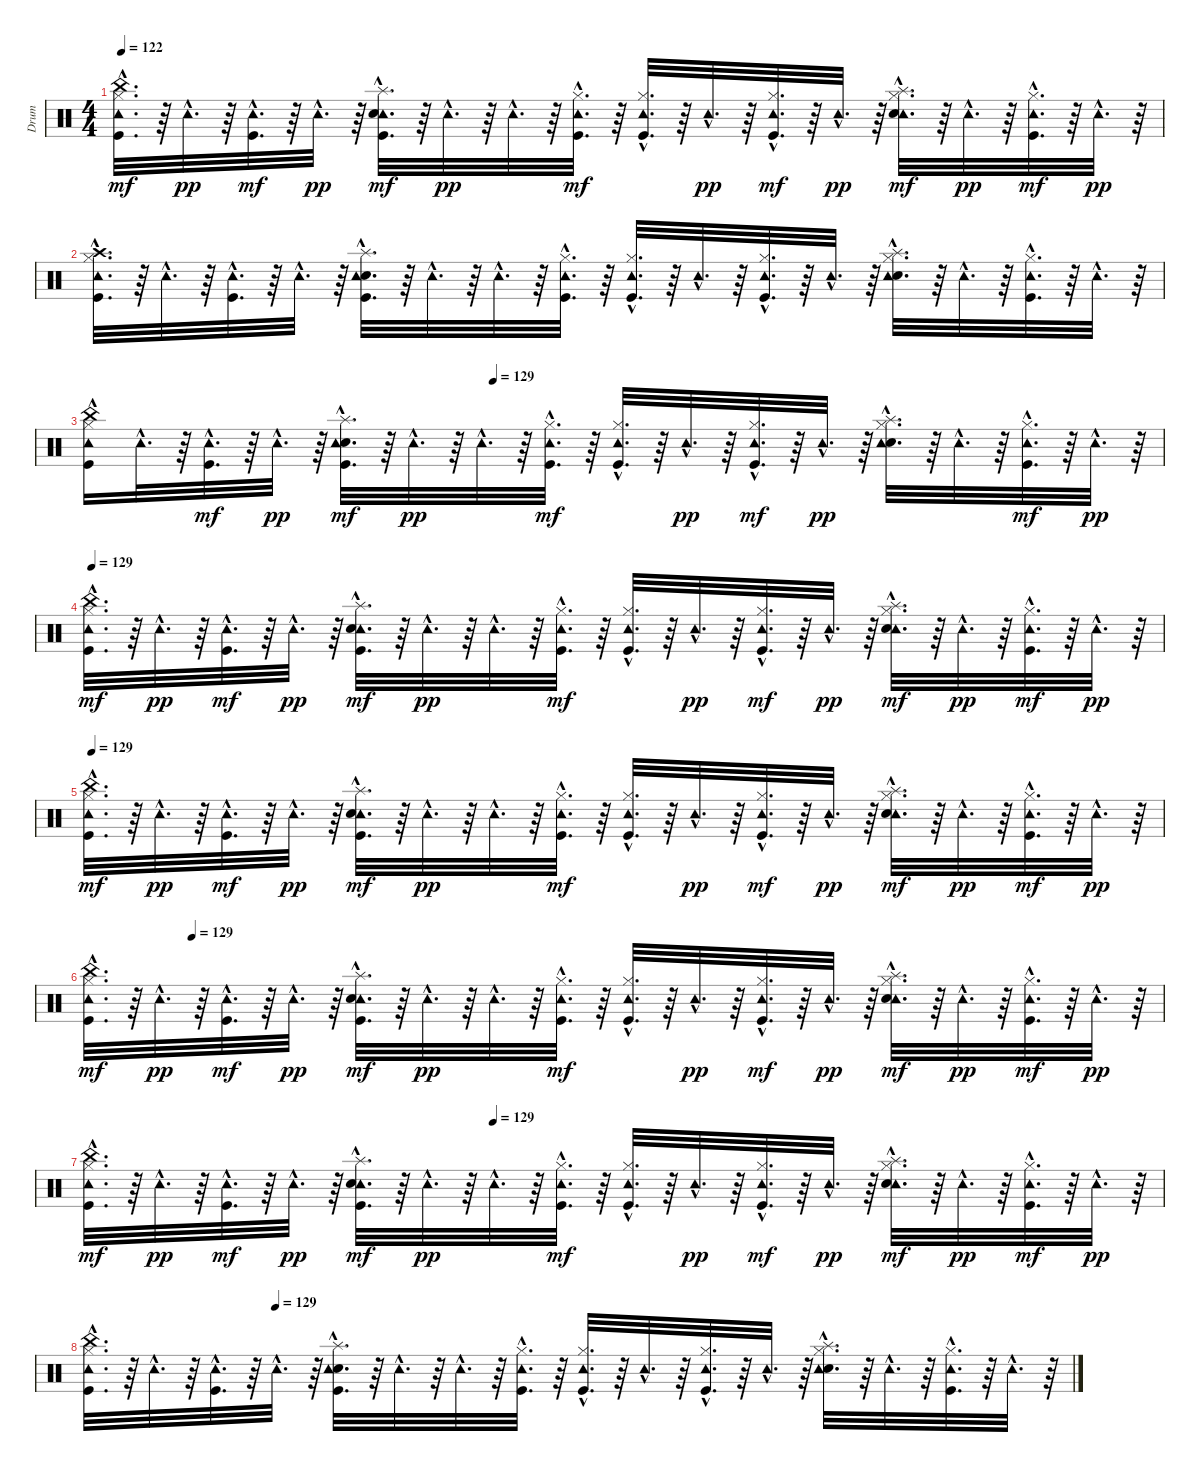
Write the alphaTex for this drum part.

\track ("Drum" "Drum") {instrument percussion}
\staff {score}
\articulation defaults
\ts (4 4)
\tempo 122
\clef neutral
\ks c
("China (hit)"{hac} "Tambourine (hit)"{hac} "Hi-Hat (closed)"{hac} "Kick (hit)"{hac}).32{d dy mf} r.64 "Tambourine (hit)"{hac}.32{d dy pp} r.64 ("Tambourine (hit)"{hac} "Kick (hit)"{hac}).32{d dy mf} r.64 "Tambourine (hit)"{hac}.32{d dy pp} r.64 ("Tambourine (hit)"{hac} "Kick (hit)"{hac} "Snare (hit) 2"{hac} "Splash (hit)"{hac}).32{d dy mf} r.64 "Tambourine (hit)"{hac}.32{d dy pp} r.64 "Tambourine (hit)"{hac}.32{d} r.64 ("Tambourine (hit)"{hac} "Hi-Hat (closed)"{hac} "Kick (hit)"{hac}).32{d dy mf} r.64 ("Tambourine (hit)"{hac} "Hi-Hat (closed)"{hac} "Kick (hit)"{hac}).32{d} r.64 "Tambourine (hit)"{hac}.32{d dy pp} r.64 ("Tambourine (hit)"{hac} "Hi-Hat (closed)"{hac} "Kick (hit)"{hac}).32{d dy mf} r.64 "Tambourine (hit)"{hac}.32{d dy pp} r.64 ("Tambourine (hit)"{hac} "Hi-Hat (closed)"{hac} "Snare (hit) 2"{hac} "Splash (hit)"{hac}).32{d dy mf} r.64 "Tambourine (hit)"{hac}.32{d dy pp} r.64 ("Tambourine (hit)"{hac} "Hi-Hat (closed)"{hac} "Kick (hit)"{hac}).32{d dy mf} r.64 "Tambourine (hit)"{hac}.32{d dy pp} r.64 |
("Crash high (hit)"{hac} "Kick (hit)"{hac} "Hi-Hat (closed)"{hac} "Tambourine (hit)"{hac}).32{d} r.64 "Tambourine (hit)"{hac}.32{d} r.64 ("Kick (hit)"{hac} "Tambourine (hit)"{hac}).32{d} r.64 "Tambourine (hit)"{hac}.32{d} r.64 ("Splash (hit)"{hac} "Snare (hit) 2"{hac} "Kick (hit)"{hac} "Tambourine (hit)"{hac}).32{d} r.64 "Tambourine (hit)"{hac}.32{d} r.64 "Tambourine (hit)"{hac}.32{d} r.64 ("Kick (hit)"{hac} "Hi-Hat (closed)"{hac} "Tambourine (hit)"{hac}).32{d} r.64 ("Kick (hit)"{hac} "Hi-Hat (closed)"{hac} "Tambourine (hit)"{hac}).32{d} r.64 "Tambourine (hit)"{hac}.32{d} r.64 ("Kick (hit)"{hac} "Hi-Hat (closed)"{hac} "Tambourine (hit)"{hac}).32{d} r.64 "Tambourine (hit)"{hac}.32{d} r.64 ("Splash (hit)"{hac} "Snare (hit) 2"{hac} "Hi-Hat (closed)"{hac} "Tambourine (hit)"{hac}).32{d} r.64 "Tambourine (hit)"{hac}.32{d} r.64 ("Kick (hit)"{hac} "Hi-Hat (closed)"{hac} "Tambourine (hit)"{hac}).32{d} r.64 "Tambourine (hit)"{hac}.32{d} r.64 |
\tempo (129 0.375)
("Kick (hit)"{hac} "China (hit)"{hac} "Hi-Hat (closed)"{hac} "Tambourine (hit)"{hac}).16 "Tambourine (hit)"{hac}.32{d} r.64 ("Tambourine (hit)"{hac} "Kick (hit)"{hac}).32{d dy mf} r.64 "Tambourine (hit)"{hac}.32{d dy pp} r.64 ("Splash (hit)"{hac} "Snare (hit) 2"{hac} "Tambourine (hit)"{hac} "Kick (hit)"{hac}).32{d dy mf} r.64 "Tambourine (hit)"{hac}.32{d dy pp} r.64 "Tambourine (hit)"{hac}.32{d} r.64 ("Kick (hit)"{hac} "Tambourine (hit)"{hac} "Hi-Hat (closed)"{hac}).32{d dy mf} r.64 ("Tambourine (hit)"{hac} "Hi-Hat (closed)"{hac} "Kick (hit)"{hac}).32{d} r.64 "Tambourine (hit)"{hac}.32{d dy pp} r.64 ("Tambourine (hit)"{hac} "Hi-Hat (closed)"{hac} "Kick (hit)"{hac}).32{d dy mf} r.64 "Tambourine (hit)"{hac}.32{d dy pp} r.64 ("Splash (hit)"{hac} "Snare (hit) 2"{hac} "Hi-Hat (closed)"{hac} "Tambourine (hit)"{hac}).32{d} r.64 "Tambourine (hit)"{hac}.32{d} r.64 ("Tambourine (hit)"{hac} "Hi-Hat (closed)"{hac} "Kick (hit)"{hac}).32{d dy mf} r.64 "Tambourine (hit)"{hac}.32{d dy pp} r.64 |
\tempo 129
("China (hit)"{hac} "Tambourine (hit)"{hac} "Hi-Hat (closed)"{hac} "Kick (hit)"{hac}).32{d dy mf} r.64 "Tambourine (hit)"{hac}.32{d dy pp} r.64 ("Tambourine (hit)"{hac} "Kick (hit)"{hac}).32{d dy mf} r.64 "Tambourine (hit)"{hac}.32{d dy pp} r.64 ("Tambourine (hit)"{hac} "Kick (hit)"{hac} "Snare (hit) 2"{hac} "Splash (hit)"{hac}).32{d dy mf} r.64 "Tambourine (hit)"{hac}.32{d dy pp} r.64 "Tambourine (hit)"{hac}.32{d} r.64 ("Tambourine (hit)"{hac} "Hi-Hat (closed)"{hac} "Kick (hit)"{hac}).32{d dy mf} r.64 ("Tambourine (hit)"{hac} "Hi-Hat (closed)"{hac} "Kick (hit)"{hac}).32{d} r.64 "Tambourine (hit)"{hac}.32{d dy pp} r.64 ("Tambourine (hit)"{hac} "Hi-Hat (closed)"{hac} "Kick (hit)"{hac}).32{d dy mf} r.64 "Tambourine (hit)"{hac}.32{d dy pp} r.64 ("Tambourine (hit)"{hac} "Hi-Hat (closed)"{hac} "Snare (hit) 2"{hac} "Splash (hit)"{hac}).32{d dy mf} r.64 "Tambourine (hit)"{hac}.32{d dy pp} r.64 ("Tambourine (hit)"{hac} "Hi-Hat (closed)"{hac} "Kick (hit)"{hac}).32{d dy mf} r.64 "Tambourine (hit)"{hac}.32{d dy pp} r.64 |
\tempo 129
("China (hit)"{hac} "Tambourine (hit)"{hac} "Hi-Hat (closed)"{hac} "Kick (hit)"{hac}).32{d dy mf} r.64 "Tambourine (hit)"{hac}.32{d dy pp} r.64 ("Tambourine (hit)"{hac} "Kick (hit)"{hac}).32{d dy mf} r.64 "Tambourine (hit)"{hac}.32{d dy pp} r.64 ("Tambourine (hit)"{hac} "Kick (hit)"{hac} "Snare (hit) 2"{hac} "Splash (hit)"{hac}).32{d dy mf} r.64 "Tambourine (hit)"{hac}.32{d dy pp} r.64 "Tambourine (hit)"{hac}.32{d} r.64 ("Tambourine (hit)"{hac} "Hi-Hat (closed)"{hac} "Kick (hit)"{hac}).32{d dy mf} r.64 ("Tambourine (hit)"{hac} "Hi-Hat (closed)"{hac} "Kick (hit)"{hac}).32{d} r.64 "Tambourine (hit)"{hac}.32{d dy pp} r.64 ("Tambourine (hit)"{hac} "Hi-Hat (closed)"{hac} "Kick (hit)"{hac}).32{d dy mf} r.64 "Tambourine (hit)"{hac}.32{d dy pp} r.64 ("Tambourine (hit)"{hac} "Hi-Hat (closed)"{hac} "Snare (hit) 2"{hac} "Splash (hit)"{hac}).32{d dy mf} r.64 "Tambourine (hit)"{hac}.32{d dy pp} r.64 ("Tambourine (hit)"{hac} "Hi-Hat (closed)"{hac} "Kick (hit)"{hac}).32{d dy mf} r.64 "Tambourine (hit)"{hac}.32{d dy pp} r.64 |
\tempo (129 0.09375)
("China (hit)"{hac} "Tambourine (hit)"{hac} "Hi-Hat (closed)"{hac} "Kick (hit)"{hac}).32{d dy mf} r.64 "Tambourine (hit)"{hac}.32{d dy pp} r.64 ("Tambourine (hit)"{hac} "Kick (hit)"{hac}).32{d dy mf} r.64 "Tambourine (hit)"{hac}.32{d dy pp} r.64 ("Tambourine (hit)"{hac} "Kick (hit)"{hac} "Snare (hit) 2"{hac} "Splash (hit)"{hac}).32{d dy mf} r.64 "Tambourine (hit)"{hac}.32{d dy pp} r.64 "Tambourine (hit)"{hac}.32{d} r.64 ("Tambourine (hit)"{hac} "Hi-Hat (closed)"{hac} "Kick (hit)"{hac}).32{d dy mf} r.64 ("Tambourine (hit)"{hac} "Hi-Hat (closed)"{hac} "Kick (hit)"{hac}).32{d} r.64 "Tambourine (hit)"{hac}.32{d dy pp} r.64 ("Tambourine (hit)"{hac} "Hi-Hat (closed)"{hac} "Kick (hit)"{hac}).32{d dy mf} r.64 "Tambourine (hit)"{hac}.32{d dy pp} r.64 ("Tambourine (hit)"{hac} "Hi-Hat (closed)"{hac} "Snare (hit) 2"{hac} "Splash (hit)"{hac}).32{d dy mf} r.64 "Tambourine (hit)"{hac}.32{d dy pp} r.64 ("Tambourine (hit)"{hac} "Hi-Hat (closed)"{hac} "Kick (hit)"{hac}).32{d dy mf} r.64 "Tambourine (hit)"{hac}.32{d dy pp} r.64 |
\tempo (129 0.375)
("China (hit)"{hac} "Tambourine (hit)"{hac} "Hi-Hat (closed)"{hac} "Kick (hit)"{hac}).32{d dy mf} r.64 "Tambourine (hit)"{hac}.32{d dy pp} r.64 ("Tambourine (hit)"{hac} "Kick (hit)"{hac}).32{d dy mf} r.64 "Tambourine (hit)"{hac}.32{d dy pp} r.64 ("Tambourine (hit)"{hac} "Kick (hit)"{hac} "Snare (hit) 2"{hac} "Splash (hit)"{hac}).32{d dy mf} r.64 "Tambourine (hit)"{hac}.32{d dy pp} r.64 "Tambourine (hit)"{hac}.32{d} r.64 ("Tambourine (hit)"{hac} "Hi-Hat (closed)"{hac} "Kick (hit)"{hac}).32{d dy mf} r.64 ("Tambourine (hit)"{hac} "Hi-Hat (closed)"{hac} "Kick (hit)"{hac}).32{d} r.64 "Tambourine (hit)"{hac}.32{d dy pp} r.64 ("Tambourine (hit)"{hac} "Hi-Hat (closed)"{hac} "Kick (hit)"{hac}).32{d dy mf} r.64 "Tambourine (hit)"{hac}.32{d dy pp} r.64 ("Tambourine (hit)"{hac} "Hi-Hat (closed)"{hac} "Snare (hit) 2"{hac} "Splash (hit)"{hac}).32{d dy mf} r.64 "Tambourine (hit)"{hac}.32{d dy pp} r.64 ("Tambourine (hit)"{hac} "Hi-Hat (closed)"{hac} "Kick (hit)"{hac}).32{d dy mf} r.64 "Tambourine (hit)"{hac}.32{d dy pp} r.64 |
\tempo (129 0.1875)
("China (hit)"{hac} "Kick (hit)"{hac} "Hi-Hat (closed)"{hac} "Tambourine (hit)"{hac}).32{d} r.64 "Tambourine (hit)"{hac}.32{d} r.64 ("Kick (hit)"{hac} "Tambourine (hit)"{hac}).32{d} r.64 "Tambourine (hit)"{hac}.32{d} r.64 ("Splash (hit)"{hac} "Snare (hit) 2"{hac} "Kick (hit)"{hac} "Tambourine (hit)"{hac}).32{d} r.64 "Tambourine (hit)"{hac}.32{d} r.64 "Tambourine (hit)"{hac}.32{d} r.64 ("Kick (hit)"{hac} "Hi-Hat (closed)"{hac} "Tambourine (hit)"{hac}).32{d} r.64 ("Kick (hit)"{hac} "Hi-Hat (closed)"{hac} "Tambourine (hit)"{hac}).32{d} r.64 "Tambourine (hit)"{hac}.32{d} r.64 ("Kick (hit)"{hac} "Hi-Hat (closed)"{hac} "Tambourine (hit)"{hac}).32{d} r.64 "Tambourine (hit)"{hac}.32{d} r.64 ("Splash (hit)"{hac} "Snare (hit) 2"{hac} "Hi-Hat (closed)"{hac} "Tambourine (hit)"{hac}).32{d} r.64 "Tambourine (hit)"{hac}.32{d} r.64 ("Kick (hit)"{hac} "Hi-Hat (closed)"{hac} "Tambourine (hit)"{hac}).32{d} r.64 "Tambourine (hit)"{hac}.32{d} r.64
